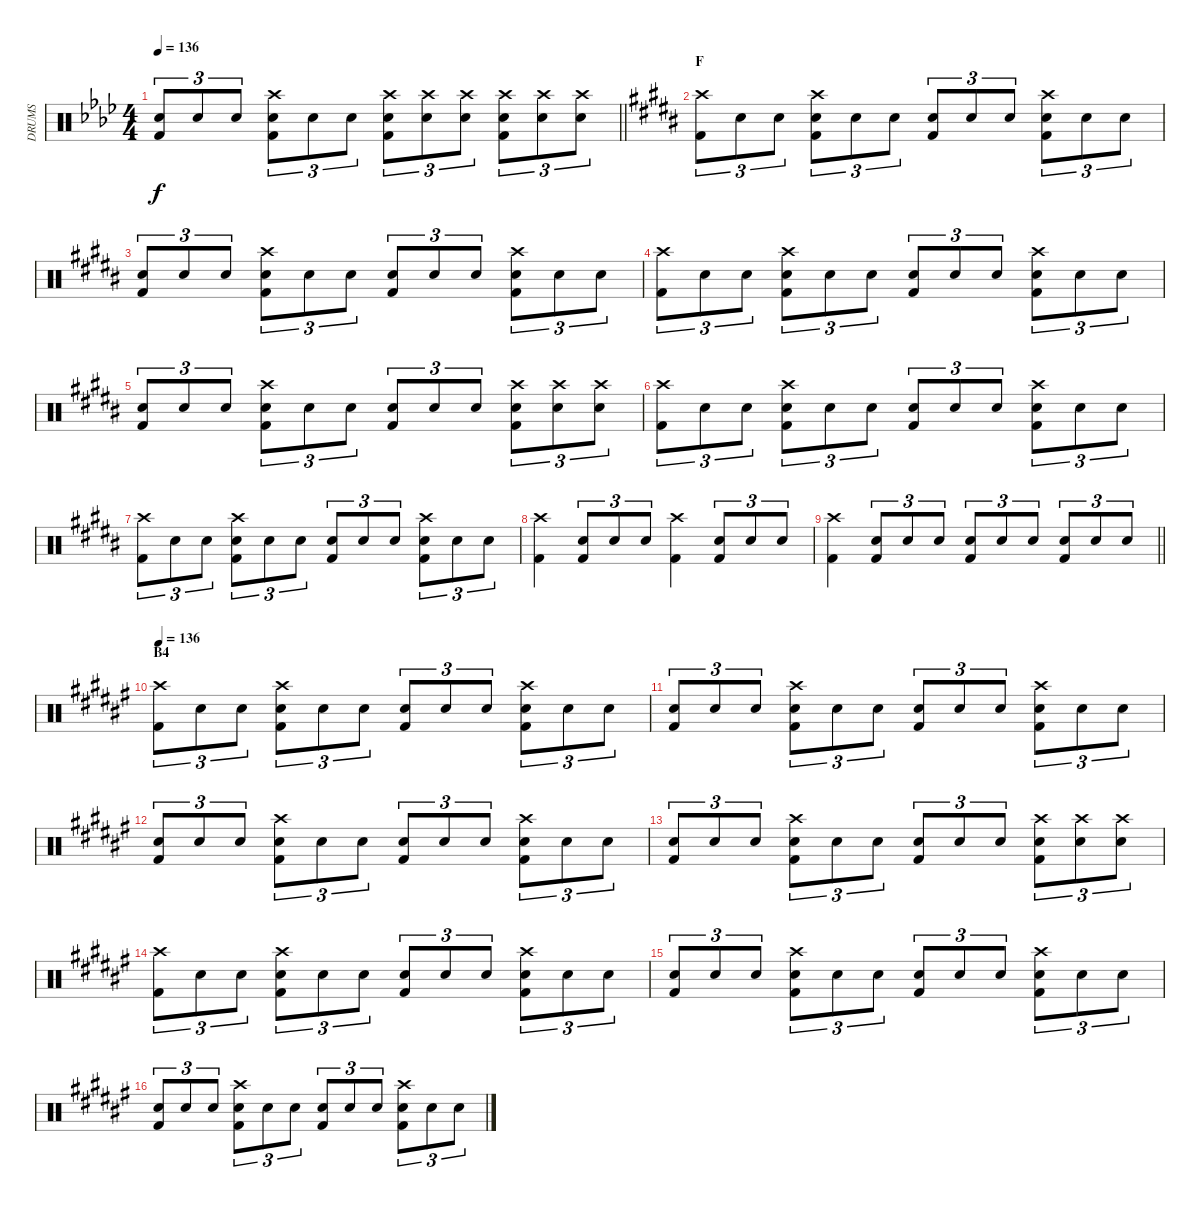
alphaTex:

\track ("DRUMS" "DRUMS") {instrument percussion}
\staff {score}
\articulation defaults
\ts (4 4)
\tempo 136
\clef neutral
\barLineRight lightlight
\ks ab
("Snare (hit) 2" "Kick (hit) 2").8{tu (3 2) dy f} "Snare (hit) 2".8{tu (3 2)} "Snare (hit) 2".8{tu (3 2)} ("Crash high (hit)" "Snare (hit) 2" "Kick (hit) 2").8{tu (3 2)} "Snare (hit) 2".8{tu (3 2)} "Snare (hit) 2".8{tu (3 2)} ("Crash high (hit)" "Snare (hit) 2" "Kick (hit) 2").8{tu (3 2)} ("Crash high (hit)" "Snare (hit) 2").8{tu (3 2)} ("Crash high (hit)" "Snare (hit) 2").8{tu (3 2)} ("Crash high (hit)" "Snare (hit) 2" "Kick (hit) 2").8{tu (3 2)} ("Crash high (hit)" "Snare (hit) 2").8{tu (3 2)} ("Crash high (hit)" "Snare (hit) 2").8{tu (3 2)} |
\section ("" "F")
\ks b
("Crash high (hit)" "Kick (hit) 2").8{tu (3 2)} "Snare (hit) 2".8{tu (3 2)} "Snare (hit) 2".8{tu (3 2)} ("Crash high (hit)" "Snare (hit) 2" "Kick (hit) 2").8{tu (3 2)} "Snare (hit) 2".8{tu (3 2)} "Snare (hit) 2".8{tu (3 2)} ("Snare (hit) 2" "Kick (hit) 2").8{tu (3 2)} "Snare (hit) 2".8{tu (3 2)} "Snare (hit) 2".8{tu (3 2)} ("Crash high (hit)" "Snare (hit) 2" "Kick (hit) 2").8{tu (3 2)} "Snare (hit) 2".8{tu (3 2)} "Snare (hit) 2".8{tu (3 2)} |
("Snare (hit) 2" "Kick (hit) 2").8{tu (3 2)} "Snare (hit) 2".8{tu (3 2)} "Snare (hit) 2".8{tu (3 2)} ("Crash high (hit)" "Snare (hit) 2" "Kick (hit) 2").8{tu (3 2)} "Snare (hit) 2".8{tu (3 2)} "Snare (hit) 2".8{tu (3 2)} ("Snare (hit) 2" "Kick (hit) 2").8{tu (3 2)} "Snare (hit) 2".8{tu (3 2)} "Snare (hit) 2".8{tu (3 2)} ("Crash high (hit)" "Snare (hit) 2" "Kick (hit) 2").8{tu (3 2)} "Snare (hit) 2".8{tu (3 2)} "Snare (hit) 2".8{tu (3 2)} |
("Crash high (hit)" "Kick (hit) 2").8{tu (3 2)} "Snare (hit) 2".8{tu (3 2)} "Snare (hit) 2".8{tu (3 2)} ("Crash high (hit)" "Snare (hit) 2" "Kick (hit) 2").8{tu (3 2)} "Snare (hit) 2".8{tu (3 2)} "Snare (hit) 2".8{tu (3 2)} ("Snare (hit) 2" "Kick (hit) 2").8{tu (3 2)} "Snare (hit) 2".8{tu (3 2)} "Snare (hit) 2".8{tu (3 2)} ("Crash high (hit)" "Snare (hit) 2" "Kick (hit) 2").8{tu (3 2)} "Snare (hit) 2".8{tu (3 2)} "Snare (hit) 2".8{tu (3 2)} |
("Snare (hit) 2" "Kick (hit) 2").8{tu (3 2)} "Snare (hit) 2".8{tu (3 2)} "Snare (hit) 2".8{tu (3 2)} ("Crash high (hit)" "Snare (hit) 2" "Kick (hit) 2").8{tu (3 2)} "Snare (hit) 2".8{tu (3 2)} "Snare (hit) 2".8{tu (3 2)} ("Snare (hit) 2" "Kick (hit) 2").8{tu (3 2)} "Snare (hit) 2".8{tu (3 2)} "Snare (hit) 2".8{tu (3 2)} ("Crash high (hit)" "Snare (hit) 2" "Kick (hit) 2").8{tu (3 2)} ("Crash high (hit)" "Snare (hit) 2").8{tu (3 2)} ("Crash high (hit)" "Snare (hit) 2").8{tu (3 2)} |
("Crash high (hit)" "Kick (hit) 2").8{tu (3 2)} "Snare (hit) 2".8{tu (3 2)} "Snare (hit) 2".8{tu (3 2)} ("Crash high (hit)" "Snare (hit) 2" "Kick (hit) 2").8{tu (3 2)} "Snare (hit) 2".8{tu (3 2)} "Snare (hit) 2".8{tu (3 2)} ("Snare (hit) 2" "Kick (hit) 2").8{tu (3 2)} "Snare (hit) 2".8{tu (3 2)} "Snare (hit) 2".8{tu (3 2)} ("Crash high (hit)" "Snare (hit) 2" "Kick (hit) 2").8{tu (3 2)} "Snare (hit) 2".8{tu (3 2)} "Snare (hit) 2".8{tu (3 2)} |
("Crash high (hit)" "Kick (hit) 2").8{tu (3 2)} "Snare (hit) 2".8{tu (3 2)} "Snare (hit) 2".8{tu (3 2)} ("Crash high (hit)" "Snare (hit) 2" "Kick (hit) 2").8{tu (3 2)} "Snare (hit) 2".8{tu (3 2)} "Snare (hit) 2".8{tu (3 2)} ("Snare (hit) 2" "Kick (hit) 2").8{tu (3 2)} "Snare (hit) 2".8{tu (3 2)} "Snare (hit) 2".8{tu (3 2)} ("Crash high (hit)" "Snare (hit) 2" "Kick (hit) 2").8{tu (3 2)} "Snare (hit) 2".8{tu (3 2)} "Snare (hit) 2".8{tu (3 2)} |
("Crash high (hit)" "Kick (hit) 2").4 ("Kick (hit) 2" "Snare (hit) 2").8{tu (3 2)} "Snare (hit) 2".8{tu (3 2)} "Snare (hit) 2".8{tu (3 2)} ("Crash high (hit)" "Kick (hit) 2").4 ("Kick (hit) 2" "Snare (hit) 2").8{tu (3 2)} "Snare (hit) 2".8{tu (3 2)} "Snare (hit) 2".8{tu (3 2)} |
\barLineRight lightlight
("Crash high (hit)" "Kick (hit) 2").4 ("Kick (hit) 2" "Snare (hit) 2").8{tu (3 2)} "Snare (hit) 2".8{tu (3 2)} "Snare (hit) 2".8{tu (3 2)} ("Kick (hit) 2" "Snare (hit) 2").8{tu (3 2)} "Snare (hit) 2".8{tu (3 2)} "Snare (hit) 2".8{tu (3 2)} ("Kick (hit) 2" "Snare (hit) 2").8{tu (3 2)} "Snare (hit) 2".8{tu (3 2)} "Snare (hit) 2".8{tu (3 2)} |
\section ("" "B4")
\tempo 136
\ks f#
("Crash high (hit)" "Kick (hit) 2").8{tu (3 2)} "Snare (hit) 2".8{tu (3 2)} "Snare (hit) 2".8{tu (3 2)} ("Crash high (hit)" "Kick (hit) 2" "Snare (hit) 2").8{tu (3 2)} "Snare (hit) 2".8{tu (3 2)} "Snare (hit) 2".8{tu (3 2)} ("Kick (hit) 2" "Snare (hit) 2").8{tu (3 2)} "Snare (hit) 2".8{tu (3 2)} "Snare (hit) 2".8{tu (3 2)} ("Crash high (hit)" "Kick (hit) 2" "Snare (hit) 2").8{tu (3 2)} "Snare (hit) 2".8{tu (3 2)} "Snare (hit) 2".8{tu (3 2)} |
("Snare (hit) 2" "Kick (hit) 2").8{tu (3 2)} "Snare (hit) 2".8{tu (3 2)} "Snare (hit) 2".8{tu (3 2)} ("Crash high (hit)" "Snare (hit) 2" "Kick (hit) 2").8{tu (3 2)} "Snare (hit) 2".8{tu (3 2)} "Snare (hit) 2".8{tu (3 2)} ("Snare (hit) 2" "Kick (hit) 2").8{tu (3 2)} "Snare (hit) 2".8{tu (3 2)} "Snare (hit) 2".8{tu (3 2)} ("Crash high (hit)" "Snare (hit) 2" "Kick (hit) 2").8{tu (3 2)} "Snare (hit) 2".8{tu (3 2)} "Snare (hit) 2".8{tu (3 2)} |
("Snare (hit) 2" "Kick (hit) 2").8{tu (3 2)} "Snare (hit) 2".8{tu (3 2)} "Snare (hit) 2".8{tu (3 2)} ("Crash high (hit)" "Snare (hit) 2" "Kick (hit) 2").8{tu (3 2)} "Snare (hit) 2".8{tu (3 2)} "Snare (hit) 2".8{tu (3 2)} ("Snare (hit) 2" "Kick (hit) 2").8{tu (3 2)} "Snare (hit) 2".8{tu (3 2)} "Snare (hit) 2".8{tu (3 2)} ("Crash high (hit)" "Snare (hit) 2" "Kick (hit) 2").8{tu (3 2)} "Snare (hit) 2".8{tu (3 2)} "Snare (hit) 2".8{tu (3 2)} |
("Snare (hit) 2" "Kick (hit) 2").8{tu (3 2)} "Snare (hit) 2".8{tu (3 2)} "Snare (hit) 2".8{tu (3 2)} ("Crash high (hit)" "Snare (hit) 2" "Kick (hit) 2").8{tu (3 2)} "Snare (hit) 2".8{tu (3 2)} "Snare (hit) 2".8{tu (3 2)} ("Snare (hit) 2" "Kick (hit) 2").8{tu (3 2)} "Snare (hit) 2".8{tu (3 2)} "Snare (hit) 2".8{tu (3 2)} ("Crash high (hit)" "Snare (hit) 2" "Kick (hit) 2").8{tu (3 2)} ("Crash high (hit)" "Snare (hit) 2").8{tu (3 2)} ("Crash high (hit)" "Snare (hit) 2").8{tu (3 2)} |
("Crash high (hit)" "Kick (hit) 2").8{tu (3 2)} "Snare (hit) 2".8{tu (3 2)} "Snare (hit) 2".8{tu (3 2)} ("Crash high (hit)" "Kick (hit) 2" "Snare (hit) 2").8{tu (3 2)} "Snare (hit) 2".8{tu (3 2)} "Snare (hit) 2".8{tu (3 2)} ("Kick (hit) 2" "Snare (hit) 2").8{tu (3 2)} "Snare (hit) 2".8{tu (3 2)} "Snare (hit) 2".8{tu (3 2)} ("Crash high (hit)" "Kick (hit) 2" "Snare (hit) 2").8{tu (3 2)} "Snare (hit) 2".8{tu (3 2)} "Snare (hit) 2".8{tu (3 2)} |
("Snare (hit) 2" "Kick (hit) 2").8{tu (3 2)} "Snare (hit) 2".8{tu (3 2)} "Snare (hit) 2".8{tu (3 2)} ("Crash high (hit)" "Snare (hit) 2" "Kick (hit) 2").8{tu (3 2)} "Snare (hit) 2".8{tu (3 2)} "Snare (hit) 2".8{tu (3 2)} ("Snare (hit) 2" "Kick (hit) 2").8{tu (3 2)} "Snare (hit) 2".8{tu (3 2)} "Snare (hit) 2".8{tu (3 2)} ("Crash high (hit)" "Snare (hit) 2" "Kick (hit) 2").8{tu (3 2)} "Snare (hit) 2".8{tu (3 2)} "Snare (hit) 2".8{tu (3 2)} |
("Snare (hit) 2" "Kick (hit) 2").8{tu (3 2)} "Snare (hit) 2".8{tu (3 2)} "Snare (hit) 2".8{tu (3 2)} ("Crash high (hit)" "Snare (hit) 2" "Kick (hit) 2").8{tu (3 2)} "Snare (hit) 2".8{tu (3 2)} "Snare (hit) 2".8{tu (3 2)} ("Snare (hit) 2" "Kick (hit) 2").8{tu (3 2)} "Snare (hit) 2".8{tu (3 2)} "Snare (hit) 2".8{tu (3 2)} ("Crash high (hit)" "Snare (hit) 2" "Kick (hit) 2").8{tu (3 2)} "Snare (hit) 2".8{tu (3 2)} "Snare (hit) 2".8{tu (3 2)}
